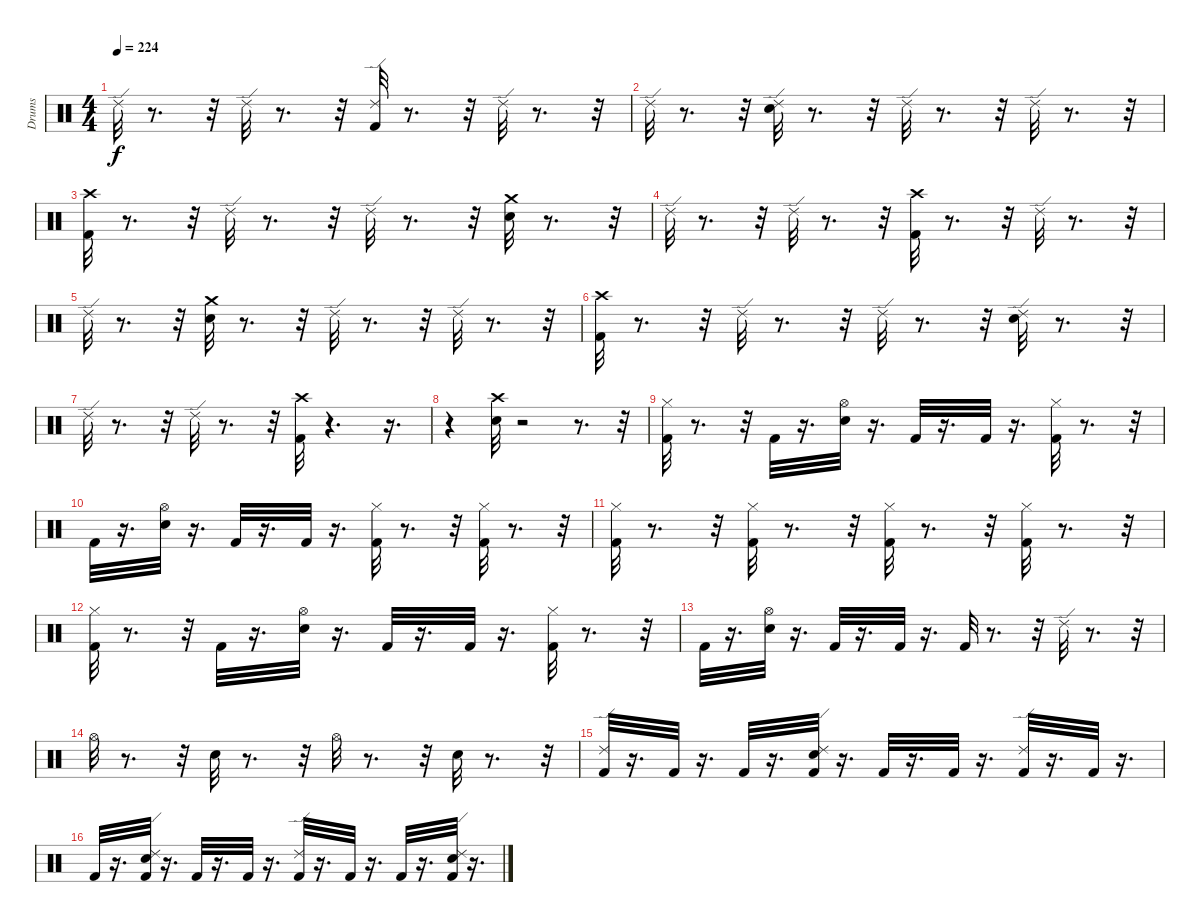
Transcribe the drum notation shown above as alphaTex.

\track ("Drums" "Drums") {instrument percussion}
\staff {score}
\articulation defaults
\ts (4 4)
\tempo 224
\clef neutral
\ks c "Ride (edge) 2".32{dy f}
r.8{d} r.32 "Ride (edge) 2".32 r.8{d} r.32 ("Ride (edge) 2" "Kick (hit) 2").32 r.8{d} r.32 "Ride (edge) 2".32 r.8{d} r.32 |
"Ride (edge) 2".32 r.8{d} r.32 ("Ride (edge) 2" "Snare (hit) 2").32 r.8{d} r.32 "Ride (edge) 2".32 r.8{d} r.32 "Ride (edge) 2".32 r.8{d} r.32 |
("Crash high (hit)" "Kick (hit) 2").32 r.8{d} r.32 "Ride (edge) 2".32 r.8{d} r.32 "Ride (edge) 2".32 r.8{d} r.32 ("Crash medium (hit)" "Snare (hit) 2").32 r.8{d} r.32 |
"Ride (edge) 2".32 r.8{d} r.32 "Ride (edge) 2".32 r.8{d} r.32 ("Crash high (hit)" "Kick (hit) 2").32 r.8{d} r.32 "Ride (edge) 2".32 r.8{d} r.32 |
"Ride (edge) 2".32 r.8{d} r.32 ("Crash medium (hit)" "Snare (hit) 2").32 r.8{d} r.32 "Ride (edge) 2".32 r.8{d} r.32 "Ride (edge) 2".32 r.8{d} r.32 |
("Kick (hit) 2" "Crash high (hit)").32 r.8{d} r.32 "Ride (edge) 2".32 r.8{d} r.32 "Ride (edge) 2".32 r.8{d} r.32 ("Snare (hit) 2" "Ride (edge) 2").32 r.8{d} r.32 |
"Ride (edge) 2".32 r.8{d} r.32 "Ride (edge) 2".32 r.8{d} r.32 ("Crash high (hit)" "Kick (hit) 2").32 r.4{d} r.16{d} |
r.4 ("Crash high (hit)" "Snare (hit) 2").32 r.2 r.8{d} r.32 |
("Hi-Hat (closed)" "Kick (hit) 2").32 r.8{d} r.32 "Kick (hit) 2".32 r.16{d} ("Snare (hit) 2" "Hi-Hat (open)").32 r.16{d} "Kick (hit) 2".32 r.16{d} "Kick (hit) 2".32 r.16{d} ("Hi-Hat (closed)" "Kick (hit) 2").32 r.8{d} r.32 |
"Kick (hit) 2".32 r.16{d} ("Snare (hit) 2" "Hi-Hat (open)").32 r.16{d} "Kick (hit) 2".32 r.16{d} "Kick (hit) 2".32 r.16{d} ("Hi-Hat (closed)" "Kick (hit) 2").32 r.8{d} r.32 ("Hi-Hat (closed)" "Kick (hit) 2").32 r.8{d} r.32 |
("Hi-Hat (closed)" "Kick (hit) 2").32 r.8{d} r.32 ("Hi-Hat (closed)" "Kick (hit) 2").32 r.8{d} r.32 ("Hi-Hat (closed)" "Kick (hit) 2").32 r.8{d} r.32 ("Hi-Hat (closed)" "Kick (hit) 2").32 r.8{d} r.32 |
("Hi-Hat (closed)" "Kick (hit) 2").32 r.8{d} r.32 "Kick (hit) 2".32 r.16{d} ("Snare (hit) 2" "Hi-Hat (open)").32 r.16{d} "Kick (hit) 2".32 r.16{d} "Kick (hit) 2".32 r.16{d} ("Hi-Hat (closed)" "Kick (hit) 2").32 r.8{d} r.32 |
"Kick (hit) 2".32 r.16{d} ("Snare (hit) 2" "Hi-Hat (open)").32 r.16{d} "Kick (hit) 2".32 r.16{d} "Kick (hit) 2".32 r.16{d} "Kick (hit) 2".32 r.8{d} r.32 "Ride (edge) 2".32 r.8{d} r.32 |
"Hi-Hat (open)".32 r.8{d} r.32 "Snare (hit) 2".32 r.8{d} r.32 "Hi-Hat (open)".32 r.8{d} r.32 "Snare (hit) 2".32 r.8{d} r.32 |
("Kick (hit) 2" "Ride (edge) 2").32 r.16{d} "Kick (hit) 2".32 r.16{d} "Kick (hit) 2".32 r.16{d} ("Snare (hit) 2" "Kick (hit) 2" "Ride (edge) 2").32 r.16{d} "Kick (hit) 2".32 r.16{d} "Kick (hit) 2".32 r.16{d} ("Kick (hit) 2" "Ride (edge) 2").32 r.16{d} "Kick (hit) 2".32 r.16{d} |
"Kick (hit) 2".32 r.16{d} ("Snare (hit) 2" "Kick (hit) 2" "Ride (edge) 2").32 r.16{d} "Kick (hit) 2".32 r.16{d} "Kick (hit) 2".32 r.16{d} ("Kick (hit) 2" "Ride (edge) 2").32 r.16{d} "Kick (hit) 2".32 r.16{d} "Kick (hit) 2".32 r.16{d} ("Kick (hit) 2" "Snare (hit) 2" "Ride (edge) 2").32 r.16{d}
